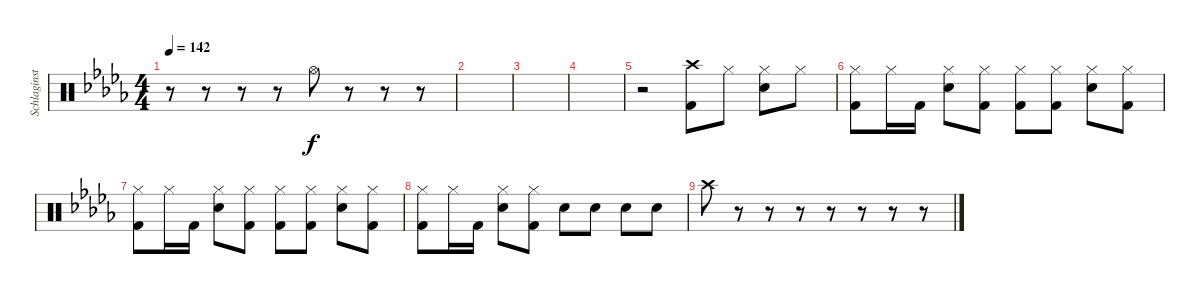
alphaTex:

\track ("Schlaginstrumente - Auswahl" "Schlaginst") {instrument percussion}
\staff {score}
\articulation defaults
\ts (4 4)
\tempo 142
\clef neutral
\ks db
r.8{dy f} r.8 r.8 r.8 "Hi-Hat (open)".8 r.8 r.8 r.8 |
|
|
|
r.2 ("Crash high (hit)" "Kick (hit) 2").8 "Hi-Hat (closed)".8 ("Hi-Hat (closed)" "Electric Snare (hit)").8 "Hi-Hat (closed)".8 |
("Hi-Hat (closed)" "Kick (hit) 2").8 "Hi-Hat (closed)".16 "Kick (hit) 2".16 ("Hi-Hat (closed)" "Electric Snare (hit)").8 ("Hi-Hat (closed)" "Kick (hit) 2").8 ("Hi-Hat (closed)" "Kick (hit) 2").8 ("Hi-Hat (closed)" "Kick (hit) 2").8 ("Hi-Hat (closed)" "Electric Snare (hit)").8 ("Hi-Hat (closed)" "Kick (hit) 2").8 |
("Hi-Hat (closed)" "Kick (hit) 2").8 "Hi-Hat (closed)".16 "Kick (hit) 2".16 ("Hi-Hat (closed)" "Electric Snare (hit)").8 ("Hi-Hat (closed)" "Kick (hit) 2").8 ("Hi-Hat (closed)" "Kick (hit) 2").8 ("Hi-Hat (closed)" "Kick (hit) 2").8 ("Hi-Hat (closed)" "Electric Snare (hit)").8 ("Hi-Hat (closed)" "Kick (hit) 2").8 |
("Hi-Hat (closed)" "Kick (hit) 2").8 "Hi-Hat (closed)".16 "Kick (hit) 2".16 ("Hi-Hat (closed)" "Electric Snare (hit)").8 ("Hi-Hat (closed)" "Kick (hit) 2").8 "Electric Snare (hit)".8 "Electric Snare (hit)".8 "Electric Snare (hit)".8 "Electric Snare (hit)".8 |
"Crash high (hit)".8 r.8 r.8 r.8 r.8 r.8 r.8 r.8
